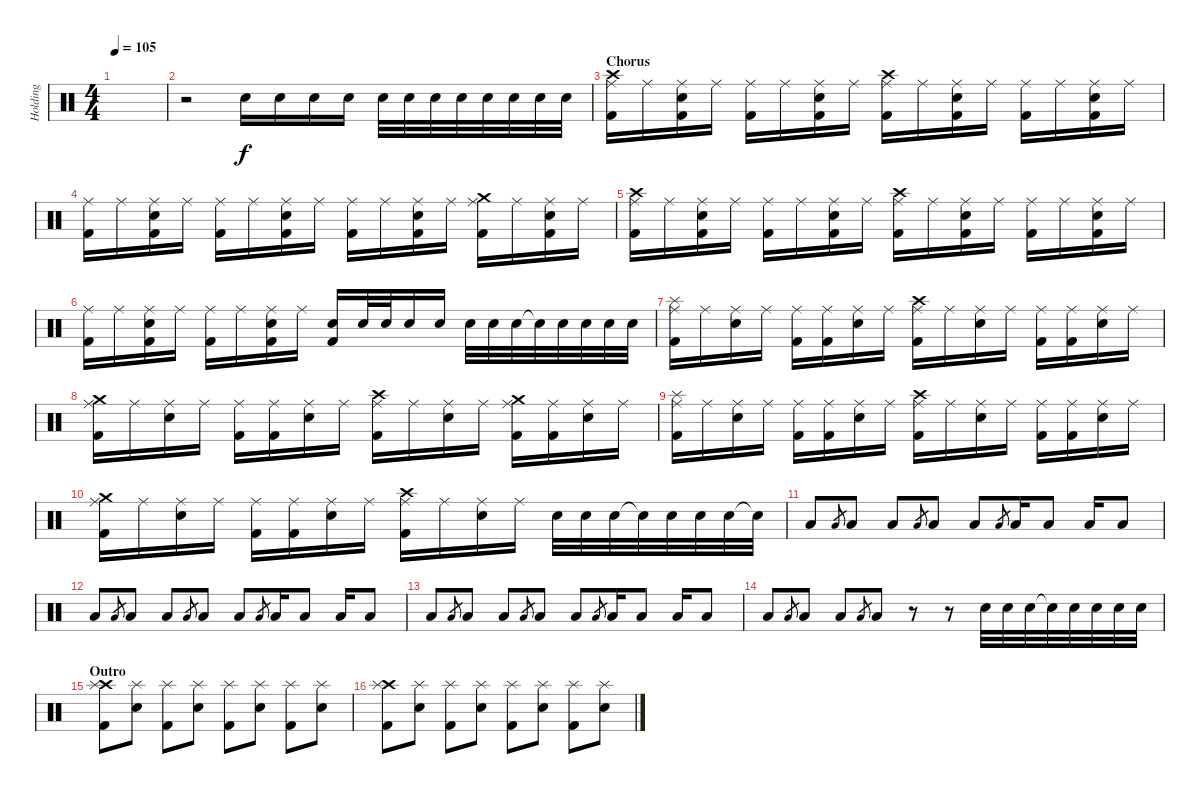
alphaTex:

\track ("Holding" "Holding") {instrument percussion}
\staff {score}
\articulation defaults
\ts (4 4)
\tempo 105
\clef neutral
\ks c
|
r.2 "Electric Snare (hit)".16 "Electric Snare (hit)".16 "Electric Snare (hit)".16 "Electric Snare (hit)".16 "Electric Snare (hit)".32 "Electric Snare (hit)".32 "Electric Snare (hit)".32 "Electric Snare (hit)".32 "Electric Snare (hit)".32 "Electric Snare (hit)".32 "Electric Snare (hit)".32 "Electric Snare (hit)".32 |
\section ("" "Chorus")
("Crash high (hit)" "Ride (middle)" "Kick (hit) 2").16 "Ride (middle)".16 ("Ride (middle)" "Electric Snare (hit)" "Kick (hit) 2").16 "Ride (middle)".16 ("Ride (middle)" "Kick (hit) 2").16 "Ride (middle)".16 ("Ride (middle)" "Electric Snare (hit)" "Kick (hit) 2").16 "Ride (middle)".16 ("Crash high (hit)" "Ride (middle)" "Kick (hit) 2").16 "Ride (middle)".16 ("Ride (middle)" "Electric Snare (hit)" "Kick (hit) 2").16 "Ride (middle)".16 ("Ride (middle)" "Kick (hit) 2").16 "Ride (middle)".16 ("Ride (middle)" "Electric Snare (hit)" "Kick (hit) 2").16 "Ride (middle)".16 |
("Ride (middle)" "Kick (hit) 2").16 "Ride (middle)".16 ("Ride (middle)" "Electric Snare (hit)" "Kick (hit) 2").16 "Ride (middle)".16 ("Ride (middle)" "Kick (hit) 2").16 "Ride (middle)".16 ("Ride (middle)" "Electric Snare (hit)" "Kick (hit) 2").16 "Ride (middle)".16 ("Ride (middle)" "Kick (hit) 2").16 "Ride (middle)".16 ("Ride (middle)" "Electric Snare (hit)" "Kick (hit) 2").16 "Ride (middle)".16 ("Crash medium (hit)" "Ride (middle)" "Kick (hit) 2").16 "Ride (middle)".16 ("Ride (middle)" "Electric Snare (hit)" "Kick (hit) 2").16 "Ride (middle)".16 |
("Crash high (hit)" "Ride (middle)" "Kick (hit) 2").16 "Ride (middle)".16 ("Ride (middle)" "Electric Snare (hit)" "Kick (hit) 2").16 "Ride (middle)".16 ("Ride (middle)" "Kick (hit) 2").16 "Ride (middle)".16 ("Ride (middle)" "Electric Snare (hit)" "Kick (hit) 2").16 "Ride (middle)".16 ("Crash high (hit)" "Ride (middle)" "Kick (hit) 2").16 "Ride (middle)".16 ("Ride (middle)" "Electric Snare (hit)" "Kick (hit) 2").16 "Ride (middle)".16 ("Ride (middle)" "Kick (hit) 2").16 "Ride (middle)".16 ("Ride (middle)" "Electric Snare (hit)" "Kick (hit) 2").16 "Ride (middle)".16 |
("Ride (middle)" "Kick (hit) 2").16 "Ride (middle)".16 ("Ride (middle)" "Electric Snare (hit)" "Kick (hit) 2").16 "Ride (middle)".16 ("Ride (middle)" "Kick (hit) 2").16 "Ride (middle)".16 ("Ride (middle)" "Electric Snare (hit)" "Kick (hit) 2").16 "Ride (middle)".16 ("Electric Snare (hit)" "Kick (hit) 2").16 "Electric Snare (hit)".32 "Electric Snare (hit)".32 "Electric Snare (hit)".16 "Electric Snare (hit)".16 "Electric Snare (hit)".32 "Electric Snare (hit)".32 "Electric Snare (hit)".32 "Electric Snare (hit)"{t}.32 "Electric Snare (hit)".32 "Electric Snare (hit)".32 "Electric Snare (hit)".32 "Electric Snare (hit)".32 |
("Splash (hit)" "Ride (middle)" "Kick (hit) 2").16 "Ride (middle)".16 ("Ride (middle)" "Electric Snare (hit)").16 "Ride (middle)".16 ("Ride (middle)" "Kick (hit) 2").16 ("Ride (middle)" "Kick (hit) 2").16 ("Ride (middle)" "Electric Snare (hit)").16 "Ride (middle)".16 ("Crash high (hit)" "Ride (middle)" "Kick (hit) 2").16 "Ride (middle)".16 ("Ride (middle)" "Electric Snare (hit)").16 "Ride (middle)".16 ("Ride (middle)" "Kick (hit) 2").16 ("Ride (middle)" "Kick (hit) 2").16 ("Ride (middle)" "Electric Snare (hit)").16 "Ride (middle)".16 |
("Crash medium (hit)" "Ride (middle)" "Kick (hit) 2").16 "Ride (middle)".16 ("Ride (middle)" "Electric Snare (hit)").16 "Ride (middle)".16 ("Ride (middle)" "Kick (hit) 2").16 ("Ride (middle)" "Kick (hit) 2").16 ("Ride (middle)" "Electric Snare (hit)").16 "Ride (middle)".16 ("Crash high (hit)" "Ride (middle)" "Kick (hit) 2").16 "Ride (middle)".16 ("Ride (middle)" "Electric Snare (hit)").16 "Ride (middle)".16 ("Crash medium (hit)" "Ride (middle)" "Kick (hit) 2").16 ("Ride (middle)" "Kick (hit) 2").16 ("Ride (middle)" "Electric Snare (hit)").16 "Ride (middle)".16 |
("Splash (hit)" "Ride (middle)" "Kick (hit) 2").16 "Ride (middle)".16 ("Ride (middle)" "Electric Snare (hit)").16 "Ride (middle)".16 ("Ride (middle)" "Kick (hit) 2").16 ("Ride (middle)" "Kick (hit) 2").16 ("Ride (middle)" "Electric Snare (hit)").16 "Ride (middle)".16 ("Crash high (hit)" "Ride (middle)" "Kick (hit) 2").16 "Ride (middle)".16 ("Ride (middle)" "Electric Snare (hit)").16 "Ride (middle)".16 ("Ride (middle)" "Kick (hit) 2").16 ("Ride (middle)" "Kick (hit) 2").16 ("Ride (middle)" "Electric Snare (hit)").16 "Ride (middle)".16 |
("Crash medium (hit)" "Ride (middle)" "Kick (hit) 2").16 "Ride (middle)".16 ("Ride (middle)" "Electric Snare (hit)").16 "Ride (middle)".16 ("Ride (middle)" "Kick (hit) 2").16 ("Ride (middle)" "Kick (hit) 2").16 ("Ride (middle)" "Electric Snare (hit)").16 "Ride (middle)".16 ("Crash high (hit)" "Ride (middle)" "Kick (hit) 2").16 "Ride (middle)".16 ("Ride (middle)" "Electric Snare (hit)").16 "Ride (middle)".16 "Electric Snare (hit)".32 "Electric Snare (hit)".32 "Electric Snare (hit)".32 "Electric Snare (hit)"{t}.32 "Electric Snare (hit)".32 "Electric Snare (hit)".32 "Electric Snare (hit)".32 "Electric Snare (hit)"{t}.32 |
"Low Floor Tom (hit)".8 "Low Floor Tom (hit)".8{gr} "Low Floor Tom (hit)".8 "Low Floor Tom (hit)".8 "Low Floor Tom (hit)".8{gr} "Low Floor Tom (hit)".8 "Low Floor Tom (hit)".8 "Low Floor Tom (hit)".8{gr} "Low Floor Tom (hit)".16 "Low Floor Tom (hit)".8 "Low Floor Tom (hit)".16 "Low Floor Tom (hit)".8 |
"Low Floor Tom (hit)".8 "Low Floor Tom (hit)".8{gr} "Low Floor Tom (hit)".8 "Low Floor Tom (hit)".8 "Low Floor Tom (hit)".8{gr} "Low Floor Tom (hit)".8 "Low Floor Tom (hit)".8 "Low Floor Tom (hit)".8{gr} "Low Floor Tom (hit)".16 "Low Floor Tom (hit)".8 "Low Floor Tom (hit)".16 "Low Floor Tom (hit)".8 |
"Low Floor Tom (hit)".8 "Low Floor Tom (hit)".8{gr} "Low Floor Tom (hit)".8 "Low Floor Tom (hit)".8 "Low Floor Tom (hit)".8{gr} "Low Floor Tom (hit)".8 "Low Floor Tom (hit)".8 "Low Floor Tom (hit)".8{gr} "Low Floor Tom (hit)".16 "Low Floor Tom (hit)".8 "Low Floor Tom (hit)".16 "Low Floor Tom (hit)".8 |
"Low Floor Tom (hit)".8 "Low Floor Tom (hit)".8{gr} "Low Floor Tom (hit)".8 "Low Floor Tom (hit)".8 "Low Floor Tom (hit)".8{gr} "Low Floor Tom (hit)".8 r.8 r.8 "Electric Snare (hit)".32 "Electric Snare (hit)".32 "Electric Snare (hit)".32 "Electric Snare (hit)"{t}.32 "Electric Snare (hit)".32 "Electric Snare (hit)".32 "Electric Snare (hit)".32 "Electric Snare (hit)".32 |
\section ("" "Outro")
("Crash high (hit)" "Splash (hit)" "Kick (hit) 2").8 ("Splash (hit)" "Electric Snare (hit)").8 ("Splash (hit)" "Kick (hit) 2").8 ("Splash (hit)" "Electric Snare (hit)").8 ("Splash (hit)" "Kick (hit) 2").8 ("Splash (hit)" "Electric Snare (hit)").8 ("Splash (hit)" "Kick (hit) 2").8 ("Splash (hit)" "Electric Snare (hit)").8 |
("Crash high (hit)" "Splash (hit)" "Kick (hit) 2").8 ("Splash (hit)" "Electric Snare (hit)").8 ("Splash (hit)" "Kick (hit) 2").8 ("Splash (hit)" "Electric Snare (hit)").8 ("Splash (hit)" "Kick (hit) 2").8 ("Splash (hit)" "Electric Snare (hit)").8 ("Splash (hit)" "Kick (hit) 2").8 ("Splash (hit)" "Electric Snare (hit)").8
